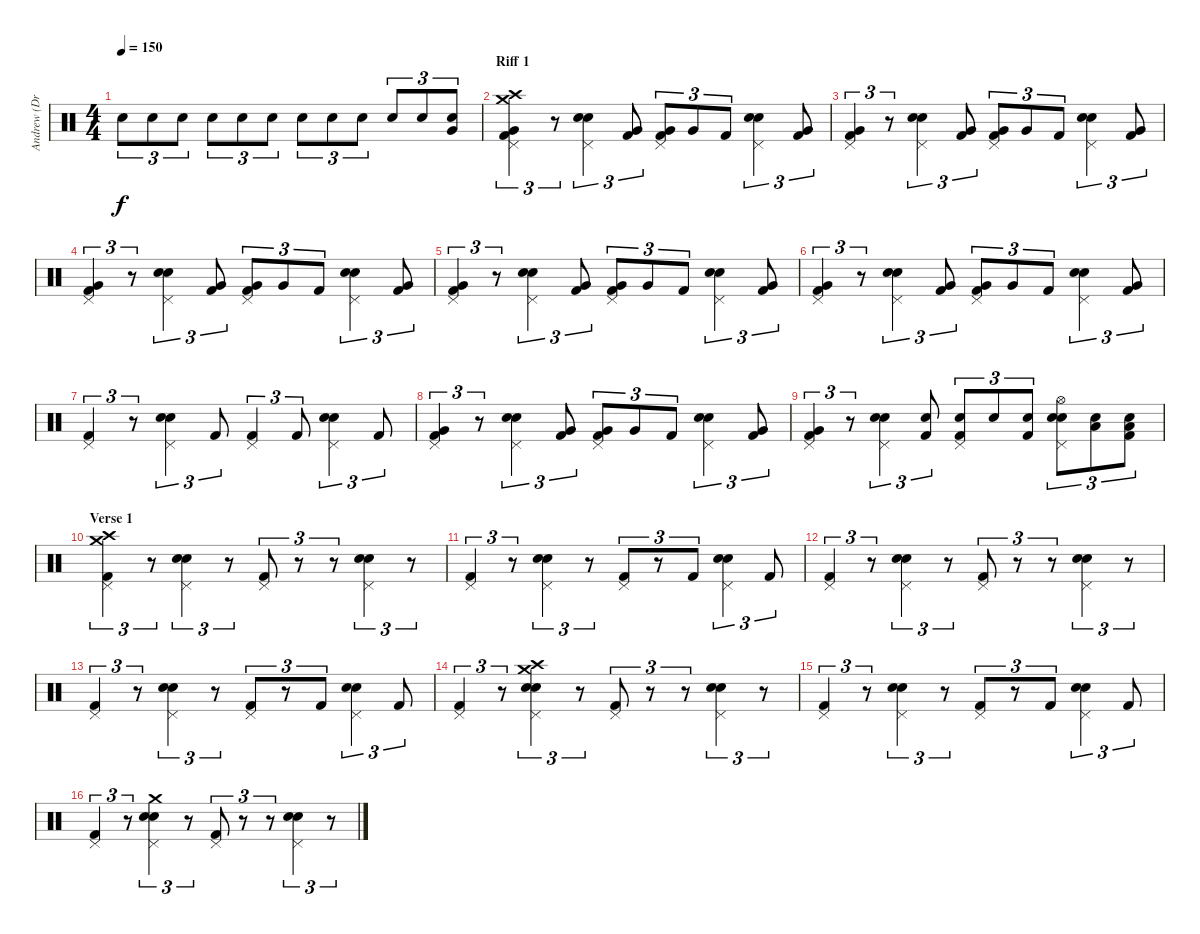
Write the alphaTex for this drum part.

\track ("Andrew (Drums)" "Andrew (Dr") {instrument percussion}
\staff {score}
\articulation defaults
\ts (4 4)
\tempo 150
\clef neutral
\ks c "Electric Snare (hit)".8{tu (3 2) dy f} "Electric Snare (hit)".8{tu (3 2)} "Electric Snare (hit)".8{tu (3 2)} "Electric Snare (hit)".8{tu (3 2)} "Electric Snare (hit)".8{tu (3 2)} "Electric Snare (hit)".8{tu (3 2)} "Electric Snare (hit)".8{tu (3 2)} "Electric Snare (hit)".8{tu (3 2)} "Electric Snare (hit)".8{tu (3 2)} "Electric Snare (hit)".8{tu (3 2)} "Electric Snare (hit)".8{tu (3 2)}
("Electric Snare (hit)" "Very Low Tom (hit)").8{tu (3 2)} |
\section ("" "Riff 1")
("Kick (hit) 2" "Pedal Hi-Hat (hit)" "Very Low Tom (hit)" "Crash medium (hit)" "Crash high (hit)").4{tu (3 2)} r.8{tu (3 2)} ("Electric Snare (hit)" "Snare (hit) 2" "Pedal Hi-Hat (hit)").4{tu (3 2)} ("Kick (hit) 2" "Very Low Tom (hit)").8{tu (3 2)} ("Kick (hit) 2" "Pedal Hi-Hat (hit)" "Very Low Tom (hit)").8{tu (3 2)} "Very Low Tom (hit)".8{tu (3 2)} "Kick (hit) 2".8{tu (3 2)} ("Electric Snare (hit)" "Snare (hit) 2" "Pedal Hi-Hat (hit)").4{tu (3 2)} ("Kick (hit) 2" "Very Low Tom (hit)").8{tu (3 2)} |
("Kick (hit) 2" "Pedal Hi-Hat (hit)" "Very Low Tom (hit)").4{tu (3 2)} r.8{tu (3 2)} ("Electric Snare (hit)" "Snare (hit) 2" "Pedal Hi-Hat (hit)").4{tu (3 2)} ("Kick (hit) 2" "Very Low Tom (hit)").8{tu (3 2)} ("Kick (hit) 2" "Pedal Hi-Hat (hit)" "Very Low Tom (hit)").8{tu (3 2)} "Very Low Tom (hit)".8{tu (3 2)} "Kick (hit) 2".8{tu (3 2)} ("Electric Snare (hit)" "Snare (hit) 2" "Pedal Hi-Hat (hit)").4{tu (3 2)} ("Kick (hit) 2" "Very Low Tom (hit)").8{tu (3 2)} |
("Kick (hit) 2" "Pedal Hi-Hat (hit)" "Very Low Tom (hit)").4{tu (3 2)} r.8{tu (3 2)} ("Electric Snare (hit)" "Snare (hit) 2" "Pedal Hi-Hat (hit)").4{tu (3 2)} ("Kick (hit) 2" "Very Low Tom (hit)").8{tu (3 2)} ("Kick (hit) 2" "Pedal Hi-Hat (hit)" "Very Low Tom (hit)").8{tu (3 2)} "Very Low Tom (hit)".8{tu (3 2)} "Kick (hit) 2".8{tu (3 2)} ("Electric Snare (hit)" "Snare (hit) 2" "Pedal Hi-Hat (hit)").4{tu (3 2)} ("Kick (hit) 2" "Very Low Tom (hit)").8{tu (3 2)} |
("Kick (hit) 2" "Pedal Hi-Hat (hit)" "Very Low Tom (hit)").4{tu (3 2)} r.8{tu (3 2)} ("Electric Snare (hit)" "Snare (hit) 2" "Pedal Hi-Hat (hit)").4{tu (3 2)} ("Kick (hit) 2" "Very Low Tom (hit)").8{tu (3 2)} ("Kick (hit) 2" "Pedal Hi-Hat (hit)" "Very Low Tom (hit)").8{tu (3 2)} "Very Low Tom (hit)".8{tu (3 2)} "Kick (hit) 2".8{tu (3 2)} ("Electric Snare (hit)" "Snare (hit) 2" "Pedal Hi-Hat (hit)").4{tu (3 2)} ("Kick (hit) 2" "Very Low Tom (hit)").8{tu (3 2)} |
("Kick (hit) 2" "Pedal Hi-Hat (hit)" "Very Low Tom (hit)").4{tu (3 2)} r.8{tu (3 2)} ("Electric Snare (hit)" "Snare (hit) 2" "Pedal Hi-Hat (hit)").4{tu (3 2)} ("Kick (hit) 2" "Very Low Tom (hit)").8{tu (3 2)} ("Kick (hit) 2" "Pedal Hi-Hat (hit)" "Very Low Tom (hit)").8{tu (3 2)} "Very Low Tom (hit)".8{tu (3 2)} "Kick (hit) 2".8{tu (3 2)} ("Electric Snare (hit)" "Snare (hit) 2" "Pedal Hi-Hat (hit)").4{tu (3 2)} ("Kick (hit) 2" "Very Low Tom (hit)").8{tu (3 2)} |
("Kick (hit) 2" "Pedal Hi-Hat (hit)").4{tu (3 2)} r.8{tu (3 2)} ("Electric Snare (hit)" "Snare (hit) 2" "Pedal Hi-Hat (hit)").4{tu (3 2)} "Kick (hit) 2".8{tu (3 2)} ("Kick (hit) 2" "Pedal Hi-Hat (hit)").4{tu (3 2)} "Kick (hit) 2".8{tu (3 2)} ("Electric Snare (hit)" "Snare (hit) 2" "Pedal Hi-Hat (hit)").4{tu (3 2)} "Kick (hit) 2".8{tu (3 2)} |
("Kick (hit) 2" "Pedal Hi-Hat (hit)" "Very Low Tom (hit)").4{tu (3 2)} r.8{tu (3 2)} ("Electric Snare (hit)" "Snare (hit) 2" "Pedal Hi-Hat (hit)").4{tu (3 2)} ("Kick (hit) 2" "Very Low Tom (hit)").8{tu (3 2)} ("Kick (hit) 2" "Pedal Hi-Hat (hit)" "Very Low Tom (hit)").8{tu (3 2)} "Very Low Tom (hit)".8{tu (3 2)} "Kick (hit) 2".8{tu (3 2)} ("Electric Snare (hit)" "Snare (hit) 2" "Pedal Hi-Hat (hit)").4{tu (3 2)} ("Kick (hit) 2" "Very Low Tom (hit)").8{tu (3 2)} |
("Kick (hit) 2" "Pedal Hi-Hat (hit)" "Very Low Tom (hit)").4{tu (3 2)} r.8{tu (3 2)} ("Electric Snare (hit)" "Snare (hit) 2" "Pedal Hi-Hat (hit)").4{tu (3 2)} ("Kick (hit) 2" "Electric Snare (hit)").8{tu (3 2)} ("Kick (hit) 2" "Pedal Hi-Hat (hit)" "Electric Snare (hit)").8{tu (3 2)} "Electric Snare (hit)".8{tu (3 2)} ("Kick (hit) 2" "Electric Snare (hit)").8{tu (3 2)} ("Electric Snare (hit)" "Snare (hit) 2" "Pedal Hi-Hat (hit)" "Hi-Hat (open)").8{tu (3 2)} ("Electric Snare (hit)" "Low Tom (hit)").8{tu (3 2)} ("Kick (hit) 2" "Electric Snare (hit)" "Low Floor Tom (hit)").8{tu (3 2)} |
\section ("" "Verse 1")
("Kick (hit) 2" "Pedal Hi-Hat (hit)" "Crash medium (hit)" "Crash high (hit)").4{tu (3 2)} r.8{tu (3 2)} ("Electric Snare (hit)" "Snare (hit) 2" "Pedal Hi-Hat (hit)").4{tu (3 2)} r.8{tu (3 2)} ("Kick (hit) 2" "Pedal Hi-Hat (hit)").8{tu (3 2)} r.8{tu (3 2)} r.8{tu (3 2)} ("Electric Snare (hit)" "Snare (hit) 2" "Pedal Hi-Hat (hit)").4{tu (3 2)} r.8{tu (3 2)} |
("Kick (hit) 2" "Pedal Hi-Hat (hit)").4{tu (3 2)} r.8{tu (3 2)} ("Electric Snare (hit)" "Snare (hit) 2" "Pedal Hi-Hat (hit)").4{tu (3 2)} r.8{tu (3 2)} ("Kick (hit) 2" "Pedal Hi-Hat (hit)").8{tu (3 2)} r.8{tu (3 2)} "Kick (hit) 2".8{tu (3 2)} ("Electric Snare (hit)" "Snare (hit) 2" "Pedal Hi-Hat (hit)").4{tu (3 2)} "Kick (hit) 2".8{tu (3 2)} |
("Kick (hit) 2" "Pedal Hi-Hat (hit)").4{tu (3 2)} r.8{tu (3 2)} ("Electric Snare (hit)" "Snare (hit) 2" "Pedal Hi-Hat (hit)").4{tu (3 2)} r.8{tu (3 2)} ("Kick (hit) 2" "Pedal Hi-Hat (hit)").8{tu (3 2)} r.8{tu (3 2)} r.8{tu (3 2)} ("Electric Snare (hit)" "Snare (hit) 2" "Pedal Hi-Hat (hit)").4{tu (3 2)} r.8{tu (3 2)} |
("Kick (hit) 2" "Pedal Hi-Hat (hit)").4{tu (3 2)} r.8{tu (3 2)} ("Electric Snare (hit)" "Snare (hit) 2" "Pedal Hi-Hat (hit)").4{tu (3 2)} r.8{tu (3 2)} ("Kick (hit) 2" "Pedal Hi-Hat (hit)").8{tu (3 2)} r.8{tu (3 2)} "Kick (hit) 2".8{tu (3 2)} ("Electric Snare (hit)" "Snare (hit) 2" "Pedal Hi-Hat (hit)").4{tu (3 2)} "Kick (hit) 2".8{tu (3 2)} |
("Kick (hit) 2" "Pedal Hi-Hat (hit)").4{tu (3 2)} r.8{tu (3 2)} ("Electric Snare (hit)" "Snare (hit) 2" "Pedal Hi-Hat (hit)" "Crash medium (hit)" "Crash high (hit)").4{tu (3 2)} r.8{tu (3 2)} ("Kick (hit) 2" "Pedal Hi-Hat (hit)").8{tu (3 2)} r.8{tu (3 2)} r.8{tu (3 2)} ("Electric Snare (hit)" "Snare (hit) 2" "Pedal Hi-Hat (hit)").4{tu (3 2)} r.8{tu (3 2)} |
("Kick (hit) 2" "Pedal Hi-Hat (hit)").4{tu (3 2)} r.8{tu (3 2)} ("Electric Snare (hit)" "Snare (hit) 2" "Pedal Hi-Hat (hit)").4{tu (3 2)} r.8{tu (3 2)} ("Kick (hit) 2" "Pedal Hi-Hat (hit)").8{tu (3 2)} r.8{tu (3 2)} "Kick (hit) 2".8{tu (3 2)} ("Electric Snare (hit)" "Snare (hit) 2" "Pedal Hi-Hat (hit)").4{tu (3 2)} "Kick (hit) 2".8{tu (3 2)} |
("Kick (hit) 2" "Pedal Hi-Hat (hit)").4{tu (3 2)} r.8{tu (3 2)} ("Electric Snare (hit)" "Snare (hit) 2" "Pedal Hi-Hat (hit)" "Crash medium (hit)").4{tu (3 2)} r.8{tu (3 2)} ("Kick (hit) 2" "Pedal Hi-Hat (hit)").8{tu (3 2)} r.8{tu (3 2)} r.8{tu (3 2)} ("Electric Snare (hit)" "Snare (hit) 2" "Pedal Hi-Hat (hit)").4{tu (3 2)} r.8{tu (3 2)}
